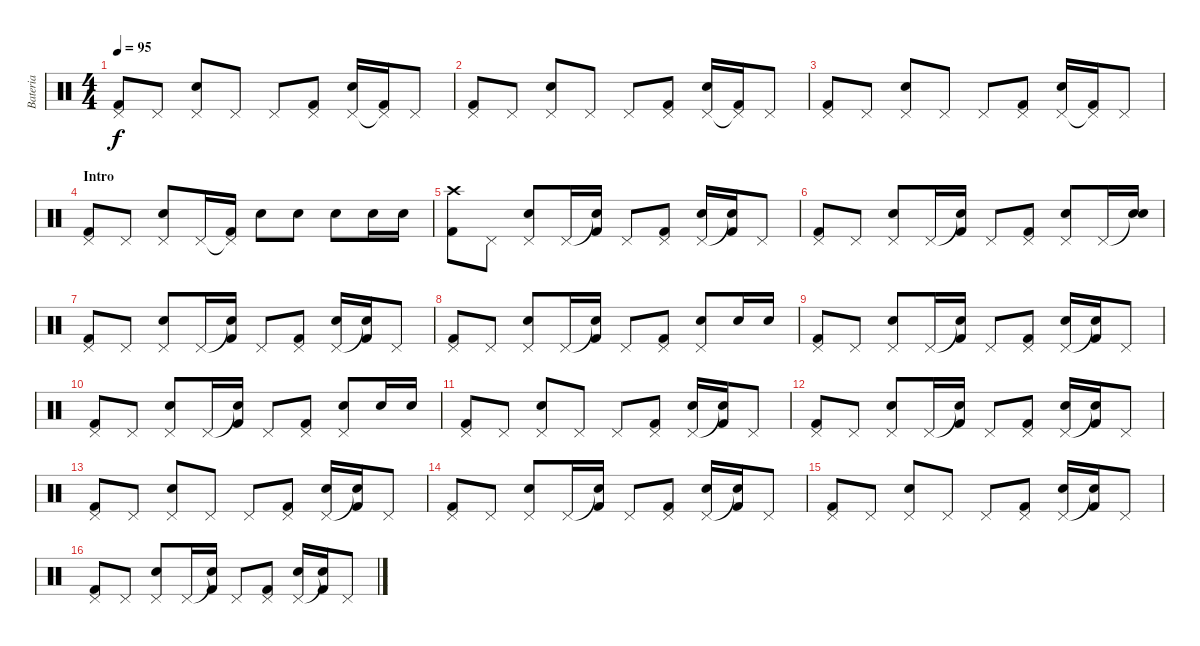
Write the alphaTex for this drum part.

\track ("Bateria" "Bateria") {instrument percussion}
\staff {score}
\articulation defaults
\ts (4 4)
\tempo 95
\clef neutral
\ks c
("Pedal Hi-Hat (hit)" "Kick (hit) 2").8{dy f} "Pedal Hi-Hat (hit)".8 ("Pedal Hi-Hat (hit)" "Electric Snare (hit)").8 "Pedal Hi-Hat (hit)".8 "Pedal Hi-Hat (hit)".8 ("Pedal Hi-Hat (hit)" "Kick (hit) 2").8 ("Pedal Hi-Hat (hit)" "Electric Snare (hit)").16 ("Pedal Hi-Hat (hit)"{t} "Kick (hit) 2").16 "Pedal Hi-Hat (hit)".8 |
("Pedal Hi-Hat (hit)" "Kick (hit) 2").8 "Pedal Hi-Hat (hit)".8 ("Pedal Hi-Hat (hit)" "Electric Snare (hit)").8 "Pedal Hi-Hat (hit)".8 "Pedal Hi-Hat (hit)".8 ("Pedal Hi-Hat (hit)" "Kick (hit) 2").8 ("Pedal Hi-Hat (hit)" "Electric Snare (hit)").16 ("Pedal Hi-Hat (hit)"{t} "Kick (hit) 2").16 "Pedal Hi-Hat (hit)".8 |
("Pedal Hi-Hat (hit)" "Kick (hit) 2").8 "Pedal Hi-Hat (hit)".8 ("Pedal Hi-Hat (hit)" "Electric Snare (hit)").8 "Pedal Hi-Hat (hit)".8 "Pedal Hi-Hat (hit)".8 ("Pedal Hi-Hat (hit)" "Kick (hit) 2").8 ("Pedal Hi-Hat (hit)" "Electric Snare (hit)").16 ("Pedal Hi-Hat (hit)"{t} "Kick (hit) 2").16 "Pedal Hi-Hat (hit)".8 |
\section ("" "Intro")
("Pedal Hi-Hat (hit)" "Kick (hit) 2").8 "Pedal Hi-Hat (hit)".8 ("Pedal Hi-Hat (hit)" "Electric Snare (hit)").8 "Pedal Hi-Hat (hit)".16 ("Pedal Hi-Hat (hit)"{t} "Kick (hit) 2").16 "Electric Snare (hit)".8 "Electric Snare (hit)".8 "Electric Snare (hit)".8 "Electric Snare (hit)".16 "Electric Snare (hit)".16 |
("Crash high (hit)" "Kick (hit) 2").8 "Pedal Hi-Hat (hit)".8 ("Pedal Hi-Hat (hit)" "Electric Snare (hit)").8 "Pedal Hi-Hat (hit)".16 ("Snare (hit)"{t} "Kick (hit) 2").16 "Pedal Hi-Hat (hit)".8 ("Pedal Hi-Hat (hit)" "Kick (hit) 2").8 ("Pedal Hi-Hat (hit)" "Electric Snare (hit)").16 ("Snare (hit)"{t} "Kick (hit) 2").16 "Pedal Hi-Hat (hit)".8 |
("Pedal Hi-Hat (hit)" "Kick (hit) 2").8 "Pedal Hi-Hat (hit)".8 ("Pedal Hi-Hat (hit)" "Electric Snare (hit)").8 "Pedal Hi-Hat (hit)".16 ("Snare (hit)"{t} "Kick (hit) 2").16 "Pedal Hi-Hat (hit)".8 ("Pedal Hi-Hat (hit)" "Kick (hit) 2").8 ("Pedal Hi-Hat (hit)" "Electric Snare (hit)").8 "Pedal Hi-Hat (hit)".16 ("Snare (hit)"{t} "Electric Snare (hit)").16 |
("Pedal Hi-Hat (hit)" "Kick (hit) 2").8 "Pedal Hi-Hat (hit)".8 ("Pedal Hi-Hat (hit)" "Electric Snare (hit)").8 "Pedal Hi-Hat (hit)".16 ("Snare (hit)"{t} "Kick (hit) 2").16 "Pedal Hi-Hat (hit)".8 ("Pedal Hi-Hat (hit)" "Kick (hit) 2").8 ("Pedal Hi-Hat (hit)" "Electric Snare (hit)").16 ("Snare (hit)"{t} "Kick (hit) 2").16 "Pedal Hi-Hat (hit)".8 |
("Pedal Hi-Hat (hit)" "Kick (hit) 2").8 "Pedal Hi-Hat (hit)".8 ("Pedal Hi-Hat (hit)" "Electric Snare (hit)").8 "Pedal Hi-Hat (hit)".16 ("Snare (hit)"{t} "Kick (hit) 2").16 "Pedal Hi-Hat (hit)".8 ("Pedal Hi-Hat (hit)" "Kick (hit) 2").8 ("Pedal Hi-Hat (hit)" "Electric Snare (hit)").8 "Electric Snare (hit)".16 "Electric Snare (hit)".16 |
("Pedal Hi-Hat (hit)" "Kick (hit) 2").8 "Pedal Hi-Hat (hit)".8 ("Pedal Hi-Hat (hit)" "Electric Snare (hit)").8 "Pedal Hi-Hat (hit)".16 ("Snare (hit)"{t} "Kick (hit) 2").16 "Pedal Hi-Hat (hit)".8 ("Pedal Hi-Hat (hit)" "Kick (hit) 2").8 ("Pedal Hi-Hat (hit)" "Electric Snare (hit)").16 ("Snare (hit)"{t} "Kick (hit) 2").16 "Pedal Hi-Hat (hit)".8 |
("Pedal Hi-Hat (hit)" "Kick (hit) 2").8 "Pedal Hi-Hat (hit)".8 ("Pedal Hi-Hat (hit)" "Electric Snare (hit)").8 "Pedal Hi-Hat (hit)".16 ("Snare (hit)"{t} "Kick (hit) 2").16 "Pedal Hi-Hat (hit)".8 ("Pedal Hi-Hat (hit)" "Kick (hit) 2").8 ("Pedal Hi-Hat (hit)" "Electric Snare (hit)").8 "Electric Snare (hit)".16 "Electric Snare (hit)".16 |
\section ("" "")
("Pedal Hi-Hat (hit)" "Kick (hit) 2").8 "Pedal Hi-Hat (hit)".8 ("Pedal Hi-Hat (hit)" "Electric Snare (hit)").8 "Pedal Hi-Hat (hit)".8 "Pedal Hi-Hat (hit)".8 ("Pedal Hi-Hat (hit)" "Kick (hit) 2").8 ("Pedal Hi-Hat (hit)" "Electric Snare (hit)").16 ("Snare (hit)"{t} "Kick (hit) 2").16 "Pedal Hi-Hat (hit)".8 |
("Pedal Hi-Hat (hit)" "Kick (hit) 2").8 "Pedal Hi-Hat (hit)".8 ("Pedal Hi-Hat (hit)" "Electric Snare (hit)").8 "Pedal Hi-Hat (hit)".16 ("Snare (hit)"{t} "Kick (hit) 2").16 "Pedal Hi-Hat (hit)".8 ("Pedal Hi-Hat (hit)" "Kick (hit) 2").8 ("Pedal Hi-Hat (hit)" "Electric Snare (hit)").16 ("Snare (hit)"{t} "Kick (hit) 2").16 "Pedal Hi-Hat (hit)".8 |
("Pedal Hi-Hat (hit)" "Kick (hit) 2").8 "Pedal Hi-Hat (hit)".8 ("Pedal Hi-Hat (hit)" "Electric Snare (hit)").8 "Pedal Hi-Hat (hit)".8 "Pedal Hi-Hat (hit)".8 ("Pedal Hi-Hat (hit)" "Kick (hit) 2").8 ("Pedal Hi-Hat (hit)" "Electric Snare (hit)").16 ("Snare (hit)"{t} "Kick (hit) 2").16 "Pedal Hi-Hat (hit)".8 |
("Pedal Hi-Hat (hit)" "Kick (hit) 2").8 "Pedal Hi-Hat (hit)".8 ("Pedal Hi-Hat (hit)" "Electric Snare (hit)").8 "Pedal Hi-Hat (hit)".16 ("Snare (hit)"{t} "Kick (hit) 2").16 "Pedal Hi-Hat (hit)".8 ("Pedal Hi-Hat (hit)" "Kick (hit) 2").8 ("Pedal Hi-Hat (hit)" "Electric Snare (hit)").16 ("Snare (hit)"{t} "Kick (hit) 2").16 "Pedal Hi-Hat (hit)".8 |
("Pedal Hi-Hat (hit)" "Kick (hit) 2").8 "Pedal Hi-Hat (hit)".8 ("Pedal Hi-Hat (hit)" "Electric Snare (hit)").8 "Pedal Hi-Hat (hit)".8 "Pedal Hi-Hat (hit)".8 ("Pedal Hi-Hat (hit)" "Kick (hit) 2").8 ("Pedal Hi-Hat (hit)" "Electric Snare (hit)").16 ("Snare (hit)"{t} "Kick (hit) 2").16 "Pedal Hi-Hat (hit)".8 |
("Pedal Hi-Hat (hit)" "Kick (hit) 2").8 "Pedal Hi-Hat (hit)".8 ("Pedal Hi-Hat (hit)" "Electric Snare (hit)").8 "Pedal Hi-Hat (hit)".16 ("Snare (hit)"{t} "Kick (hit) 2").16 "Pedal Hi-Hat (hit)".8 ("Pedal Hi-Hat (hit)" "Kick (hit) 2").8 ("Pedal Hi-Hat (hit)" "Electric Snare (hit)").16 ("Snare (hit)"{t} "Kick (hit) 2").16 "Pedal Hi-Hat (hit)".8
